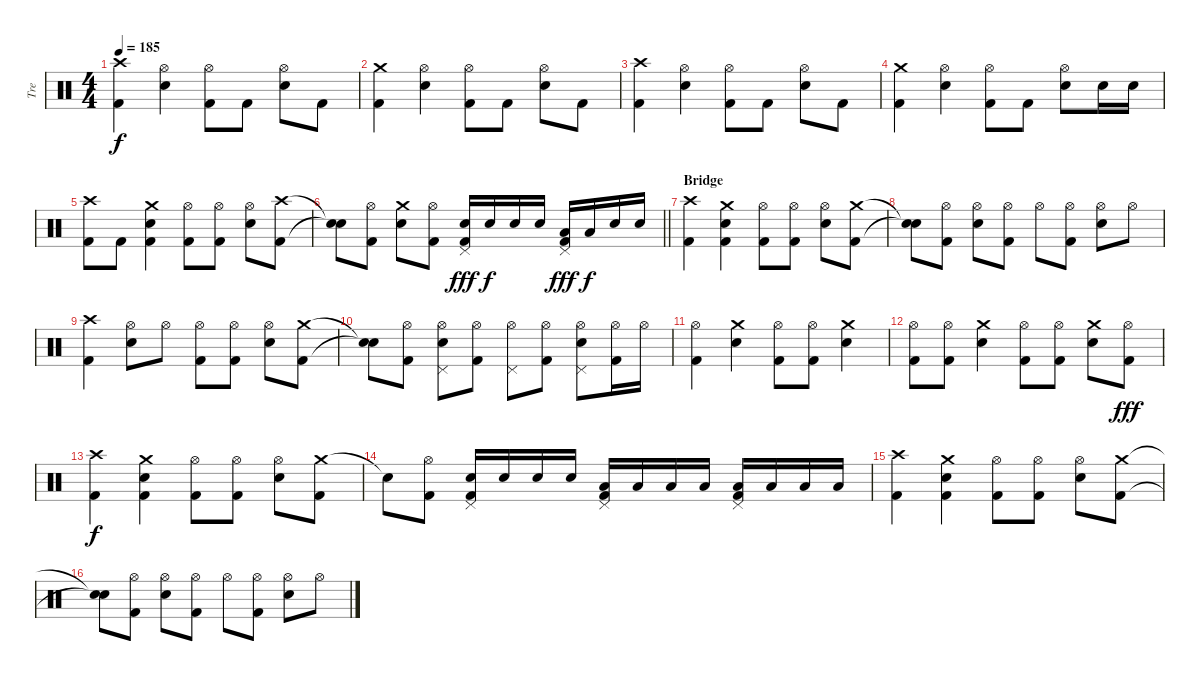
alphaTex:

\track ("Tre" "Tre") {instrument percussion}
\staff {score}
\articulation defaults
\ts (4 4)
\tempo 185
\clef neutral
\ks c
("Crash high (hit)" "Kick (hit) 2").4{dy f} ("Hi-Hat (open)" "Snare (hit) 2").4 ("Hi-Hat (open)" "Kick (hit) 2").8 "Kick (hit) 2".8 ("Hi-Hat (open)" "Snare (hit) 2").8 "Kick (hit) 2".8 |
("Crash medium (hit)" "Kick (hit) 2").4 ("Hi-Hat (open)" "Snare (hit) 2").4 ("Hi-Hat (open)" "Kick (hit) 2").8 "Kick (hit) 2".8 ("Hi-Hat (open)" "Snare (hit) 2").8 "Kick (hit) 2".8 |
("Crash high (hit)" "Kick (hit) 2").4 ("Hi-Hat (open)" "Snare (hit) 2").4 ("Hi-Hat (open)" "Kick (hit) 2").8 "Kick (hit) 2".8 ("Hi-Hat (open)" "Snare (hit) 2").8 "Kick (hit) 2".8 |
("Crash medium (hit)" "Kick (hit) 2").4 ("Hi-Hat (open)" "Snare (hit) 2").4 ("Hi-Hat (open)" "Kick (hit) 2").8 "Kick (hit) 2".8 ("Hi-Hat (open)" "Snare (hit) 2").8 "Snare (hit) 2".16 "Snare (hit) 2".16 |
("Crash high (hit)" "Kick (hit) 2").8 "Kick (hit) 2".8 ("Crash medium (hit)" "Snare (hit) 2" "Kick (hit) 2").4 ("Hi-Hat (open)" "Kick (hit) 2").8 ("Hi-Hat (open)" "Kick (hit) 2").8 ("Hi-Hat (open)" "Snare (hit) 2").8 ("Crash high (hit)" "Kick (hit) 2").8 |
\barLineRight lightlight
("Snare (hit)"{t} "Snare (hit)"{t}).8 ("Hi-Hat (open)" "Kick (hit) 2").8 ("Crash medium (hit)" "Snare (hit) 2").8 ("Hi-Hat (open)" "Kick (hit) 2").8 ("Snare (hit) 2" "Pedal Hi-Hat (hit)" "Kick (hit) 2").16{dy fff} "Snare (hit) 2".16{dy f} "Snare (hit) 2".16 "Snare (hit) 2".16 ("Low Tom (hit)" "Pedal Hi-Hat (hit)" "Kick (hit) 2").16{dy fff} "Low Tom (hit)".16{dy f} "Snare (hit) 2".16 "Snare (hit) 2".16 |
\section ("" "Bridge")
("Crash high (hit)" "Kick (hit) 2").4 ("Crash medium (hit)" "Snare (hit) 2" "Kick (hit) 2").4 ("Hi-Hat (open)" "Kick (hit) 2").8 ("Hi-Hat (open)" "Kick (hit) 2").8 ("Hi-Hat (open)" "Snare (hit) 2").8 ("Crash medium (hit)" "Kick (hit) 2").8 |
("Snare (hit)"{t} "Snare (hit)"{t}).8 ("Hi-Hat (open)" "Kick (hit) 2").8 ("Hi-Hat (open)" "Snare (hit) 2").8 ("Hi-Hat (open)" "Kick (hit) 2").8 "Hi-Hat (open)".8 ("Hi-Hat (open)" "Kick (hit) 2").8 ("Hi-Hat (open)" "Snare (hit) 2").8 "Hi-Hat (open)".8 |
("Crash high (hit)" "Kick (hit) 2").4 ("Hi-Hat (open)" "Snare (hit) 2").8 "Hi-Hat (open)".8 ("Hi-Hat (open)" "Kick (hit) 2").8 ("Hi-Hat (open)" "Kick (hit) 2").8 ("Hi-Hat (open)" "Snare (hit) 2").8 ("Crash medium (hit)" "Kick (hit) 2").8 |
("Snare (hit)"{t} "Snare (hit)"{t}).8 ("Hi-Hat (open)" "Kick (hit) 2").8 ("Hi-Hat (open)" "Snare (hit) 2" "Pedal Hi-Hat (hit)").8 ("Hi-Hat (open)" "Kick (hit) 2").8 ("Hi-Hat (open)" "Pedal Hi-Hat (hit)").8 ("Hi-Hat (open)" "Kick (hit) 2").8 ("Hi-Hat (open)" "Snare (hit) 2" "Pedal Hi-Hat (hit)").8 ("Hi-Hat (open)" "Kick (hit) 2").16 "Hi-Hat (open)".16 |
("Hi-Hat (open)" "Kick (hit) 2").4 ("Crash medium (hit)" "Snare (hit) 2").4 ("Hi-Hat (open)" "Kick (hit) 2").8 ("Hi-Hat (open)" "Kick (hit) 2").8 ("Crash medium (hit)" "Snare (hit) 2").4 |
("Hi-Hat (open)" "Kick (hit) 2").8 ("Hi-Hat (open)" "Kick (hit) 2").8 ("Crash medium (hit)" "Snare (hit) 2").4 ("Hi-Hat (open)" "Kick (hit) 2").8 ("Hi-Hat (open)" "Kick (hit) 2").8 ("Crash medium (hit)" "Snare (hit) 2").8 ("Hi-Hat (open)" "Kick (hit) 2").8{dy fff} |
("Crash high (hit)" "Kick (hit) 2").4{dy f} ("Crash medium (hit)" "Snare (hit) 2" "Kick (hit) 2").4 ("Hi-Hat (open)" "Kick (hit) 2").8 ("Hi-Hat (open)" "Kick (hit) 2").8 ("Hi-Hat (open)" "Snare (hit) 2").8 ("Crash medium (hit)" "Kick (hit) 2").8 |
"Snare (hit)"{t}.8 ("Hi-Hat (open)" "Kick (hit) 2").8 ("Snare (hit) 2" "Pedal Hi-Hat (hit)" "Kick (hit) 2").16 "Snare (hit) 2".16 "Snare (hit) 2".16 "Snare (hit) 2".16 ("Low Tom (hit)" "Pedal Hi-Hat (hit)" "Kick (hit) 2").16 "Low Tom (hit)".16 "Low Tom (hit)".16 "Low Tom (hit)".16 ("Low Floor Tom (hit)" "Pedal Hi-Hat (hit)" "Kick (hit) 2").16 "Low Floor Tom (hit)".16 "Low Floor Tom (hit)".16 "Low Floor Tom (hit)".16 |
("Crash high (hit)" "Kick (hit) 2").4 ("Crash medium (hit)" "Snare (hit) 2" "Kick (hit) 2").4 ("Hi-Hat (open)" "Kick (hit) 2").8 ("Hi-Hat (open)" "Kick (hit) 2").8 ("Hi-Hat (open)" "Snare (hit) 2").8 ("Crash medium (hit)" "Kick (hit) 2").8 |
("Snare (hit)"{t} "Snare (hit)"{t}).8 ("Hi-Hat (open)" "Kick (hit) 2").8 ("Hi-Hat (open)" "Snare (hit) 2").8 ("Hi-Hat (open)" "Kick (hit) 2").8 "Hi-Hat (open)".8 ("Hi-Hat (open)" "Kick (hit) 2").8 ("Hi-Hat (open)" "Snare (hit) 2").8 "Hi-Hat (open)".8
